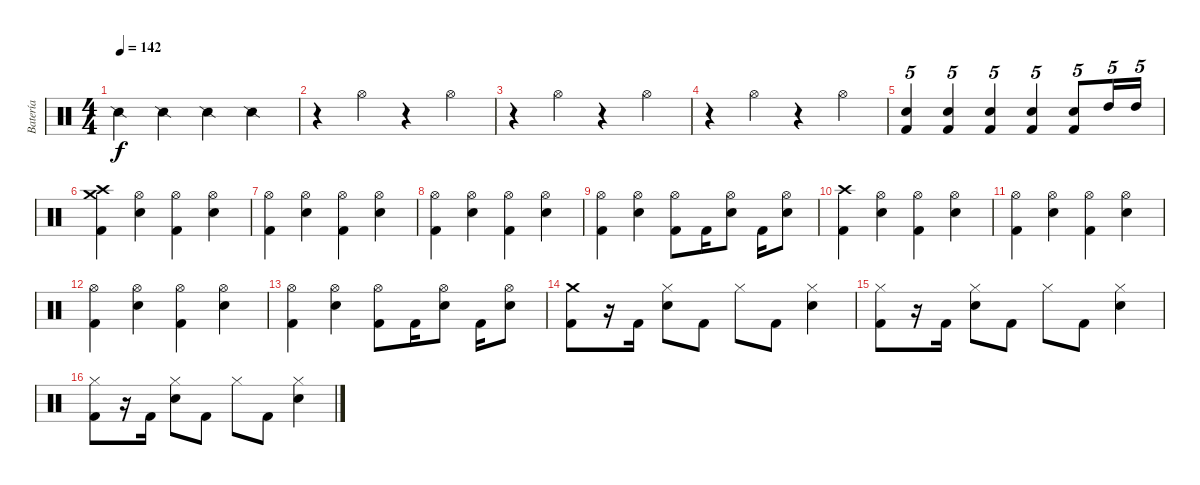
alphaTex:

\track ("Batería" "Batería") {instrument percussion}
\staff {score}
\articulation defaults
\ts (4 4)
\tempo 142
\clef neutral
\ks c "Snare (side stick) 2".4{dy f} "Snare (side stick) 2".4 "Snare (side stick) 2".4 "Snare (side stick) 2".4
|
r.4 "Hi-Hat (open)".4 r.4 "Hi-Hat (open)".4 |
r.4 "Hi-Hat (open)".4 r.4 "Hi-Hat (open)".4 |
r.4 "Hi-Hat (open)".4 r.4 "Hi-Hat (open)".4 |
("Electric Snare (hit)" "Kick (hit) 2").4{tu (5 4)} ("Electric Snare (hit)" "Kick (hit) 2").4{tu (5 4)} ("Electric Snare (hit)" "Kick (hit) 2").4{tu (5 4)} ("Electric Snare (hit)" "Kick (hit) 2").4{tu (5 4)} ("Electric Snare (hit)" "Kick (hit) 2").8{tu (5 4)} "High Tom (hit)".16{tu (5 4)} "High Tom (hit)".16{tu (5 4)} |
("Crash high (hit)" "Crash medium (hit)" "Kick (hit) 2").4 ("Hi-Hat (open)" "Electric Snare (hit)").4 ("Hi-Hat (open)" "Kick (hit) 2").4 ("Hi-Hat (open)" "Electric Snare (hit)").4 |
("Hi-Hat (open)" "Kick (hit) 2").4 ("Hi-Hat (open)" "Electric Snare (hit)").4 ("Hi-Hat (open)" "Kick (hit) 2").4 ("Hi-Hat (open)" "Electric Snare (hit)").4 |
("Hi-Hat (open)" "Kick (hit) 2").4 ("Hi-Hat (open)" "Electric Snare (hit)").4 ("Hi-Hat (open)" "Kick (hit) 2").4 ("Hi-Hat (open)" "Electric Snare (hit)").4 |
("Hi-Hat (open)" "Kick (hit) 2").4 ("Hi-Hat (open)" "Electric Snare (hit)").4 ("Hi-Hat (open)" "Kick (hit) 2").8 "Kick (hit) 2".16 ("Hi-Hat (open)" "Electric Snare (hit)").8 "Kick (hit) 2".16 ("Hi-Hat (open)" "Electric Snare (hit)").8 |
("Crash high (hit)" "Kick (hit) 2").4 ("Hi-Hat (open)" "Electric Snare (hit)").4 ("Hi-Hat (open)" "Kick (hit) 2").4 ("Hi-Hat (open)" "Electric Snare (hit)").4 |
("Hi-Hat (open)" "Kick (hit) 2").4 ("Hi-Hat (open)" "Electric Snare (hit)").4 ("Hi-Hat (open)" "Kick (hit) 2").4 ("Hi-Hat (open)" "Electric Snare (hit)").4 |
("Hi-Hat (open)" "Kick (hit) 2").4 ("Hi-Hat (open)" "Electric Snare (hit)").4 ("Hi-Hat (open)" "Kick (hit) 2").4 ("Hi-Hat (open)" "Electric Snare (hit)").4 |
("Hi-Hat (open)" "Kick (hit) 2").4 ("Hi-Hat (open)" "Electric Snare (hit)").4 ("Hi-Hat (open)" "Kick (hit) 2").8 "Kick (hit) 2".16 ("Hi-Hat (open)" "Electric Snare (hit)").8 "Kick (hit) 2".16 ("Hi-Hat (open)" "Electric Snare (hit)").8 |
("Crash medium (hit)" "Kick (hit) 2").8 r.16 "Kick (hit) 2".16 ("Hi-Hat (closed)" "Electric Snare (hit)").8 "Kick (hit) 2".8 "Hi-Hat (closed)".8 "Kick (hit) 2".8 ("Hi-Hat (closed)" "Electric Snare (hit)").4 |
("Hi-Hat (closed)" "Kick (hit) 2").8 r.16 "Kick (hit) 2".16 ("Hi-Hat (closed)" "Electric Snare (hit)").8 "Kick (hit) 2".8 "Hi-Hat (closed)".8 "Kick (hit) 2".8 ("Hi-Hat (closed)" "Electric Snare (hit)").4 |
("Hi-Hat (closed)" "Kick (hit) 2").8 r.16 "Kick (hit) 2".16 ("Hi-Hat (closed)" "Electric Snare (hit)").8 "Kick (hit) 2".8 "Hi-Hat (closed)".8 "Kick (hit) 2".8 ("Hi-Hat (closed)" "Electric Snare (hit)").4
